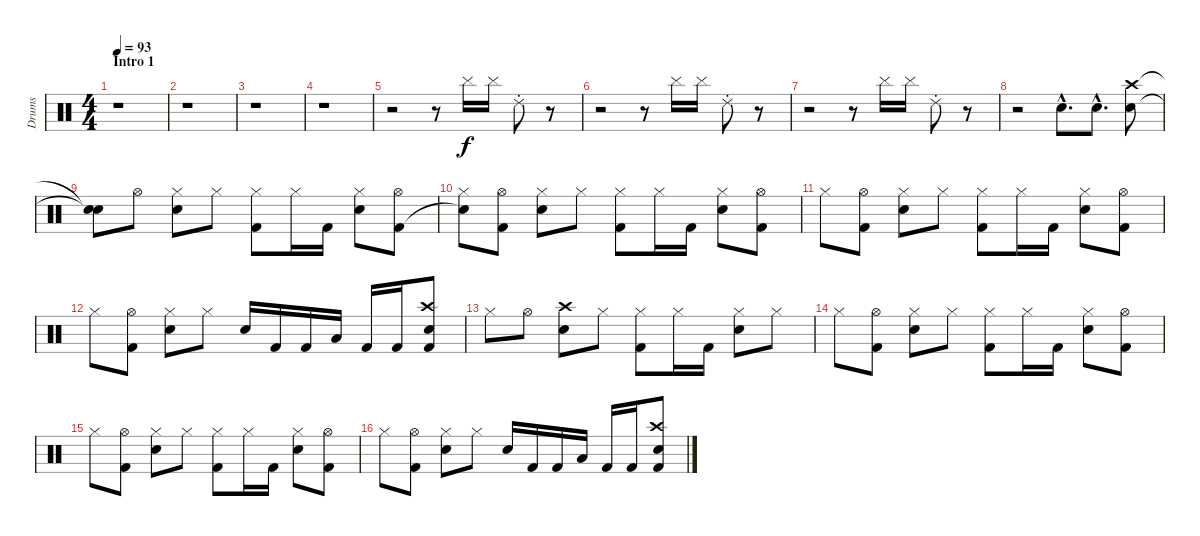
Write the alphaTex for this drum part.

\track ("Drums" "Drums") {instrument percussion}
\staff {score}
\articulation defaults
\ts (4 4)
\section ("" "Intro 1")
\tempo 93
\clef neutral
\ks c
r.1{dy f} |
r.1 |
r.1 |
r.1 |
r.2 r.8 "Cymbal (hit)".16 "Cymbal (hit)".16 "Ride (choke) 2".8 r.8 |
r.2 r.8 "Cymbal (hit)".16 "Cymbal (hit)".16 "Ride (choke) 2".8 r.8 |
r.2 r.8 "Cymbal (hit)".16 "Cymbal (hit)".16 "Ride (choke) 2".8 r.8 |
r.2 "Electric Snare (hit)"{hac}.8{d} "Electric Snare (hit)"{hac}.8{d} ("Crash high (hit)" "Electric Snare (hit)").8 |
("Snare (hit)"{t} "Snare (hit)"{t}).8 "Hi-Hat (open)".8 ("Hi-Hat (closed)" "Electric Snare (hit)").8 "Hi-Hat (closed)".8 ("Hi-Hat (closed)" "Kick (hit) 2").8 "Hi-Hat (closed)".16 "Kick (hit) 2".16 ("Hi-Hat (closed)" "Electric Snare (hit)").8 ("Hi-Hat (open)" "Kick (hit) 2").8 |
("Hi-Hat (closed)" "Snare (hit)"{t}).8 ("Hi-Hat (open)" "Kick (hit) 2").8 ("Hi-Hat (closed)" "Electric Snare (hit)").8 "Hi-Hat (closed)".8 ("Hi-Hat (closed)" "Kick (hit) 2").8 "Hi-Hat (closed)".16 "Kick (hit) 2".16 ("Hi-Hat (closed)" "Electric Snare (hit)").8 ("Hi-Hat (open)" "Kick (hit) 2").8 |
"Hi-Hat (closed)".8 ("Hi-Hat (open)" "Kick (hit) 2").8 ("Hi-Hat (closed)" "Electric Snare (hit)").8 "Hi-Hat (closed)".8 ("Hi-Hat (closed)" "Kick (hit) 2").8 "Hi-Hat (closed)".16 "Kick (hit) 2".16 ("Hi-Hat (closed)" "Electric Snare (hit)").8 ("Hi-Hat (open)" "Kick (hit) 2").8 |
"Hi-Hat (closed)".8 ("Hi-Hat (open)" "Kick (hit) 2").8 ("Hi-Hat (closed)" "Electric Snare (hit)").8 "Hi-Hat (closed)".8 "Electric Snare (hit)".16 "Kick (hit) 2".16 "Kick (hit) 2".16 "Low Tom (hit)".16 "Kick (hit) 2".16 "Kick (hit) 2".16 ("Crash high (hit)" "Electric Snare (hit)" "Kick (hit) 2").8 |
"Hi-Hat (closed)".8 "Hi-Hat (open)".8 ("Crash high (hit)" "Electric Snare (hit)").8 "Hi-Hat (closed)".8 ("Hi-Hat (closed)" "Kick (hit) 2").8 "Hi-Hat (closed)".16 "Kick (hit) 2".16 ("Hi-Hat (closed)" "Electric Snare (hit)").8 "Hi-Hat (closed)".8 |
"Hi-Hat (closed)".8 ("Hi-Hat (open)" "Kick (hit) 2").8 ("Hi-Hat (closed)" "Electric Snare (hit)").8 "Hi-Hat (closed)".8 ("Hi-Hat (closed)" "Kick (hit) 2").8 "Hi-Hat (closed)".16 "Kick (hit) 2".16 ("Hi-Hat (closed)" "Electric Snare (hit)").8 ("Hi-Hat (open)" "Kick (hit) 2").8 |
"Hi-Hat (closed)".8 ("Hi-Hat (open)" "Kick (hit) 2").8 ("Hi-Hat (closed)" "Electric Snare (hit)").8 "Hi-Hat (closed)".8 ("Hi-Hat (closed)" "Kick (hit) 2").8 "Hi-Hat (closed)".16 "Kick (hit) 2".16 ("Hi-Hat (closed)" "Electric Snare (hit)").8 ("Hi-Hat (open)" "Kick (hit) 2").8 |
"Hi-Hat (closed)".8 ("Hi-Hat (open)" "Kick (hit) 2").8 ("Hi-Hat (closed)" "Electric Snare (hit)").8 "Hi-Hat (closed)".8 "Electric Snare (hit)".16 "Kick (hit) 2".16 "Kick (hit) 2".16 "Low Tom (hit)".16 "Kick (hit) 2".16 "Kick (hit) 2".16 ("Crash high (hit)" "Electric Snare (hit)" "Kick (hit) 2").8
